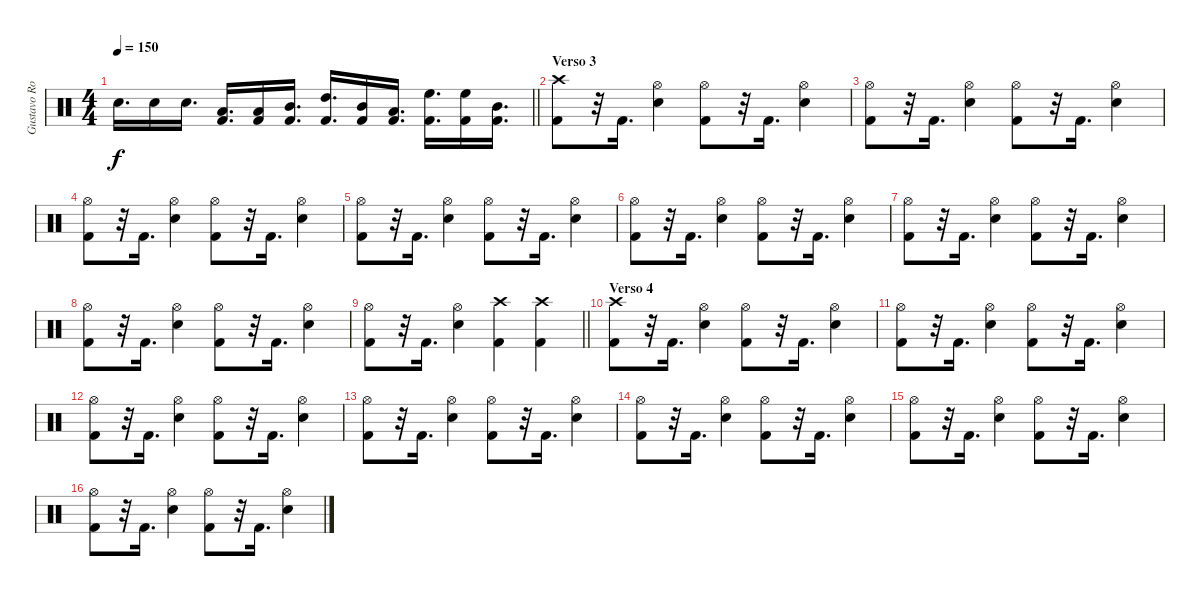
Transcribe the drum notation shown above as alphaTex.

\track ("Gustavo Rowek" "Gustavo Ro") {instrument percussion}
\staff {score}
\articulation defaults
\ts (4 4)
\tempo 150
\clef neutral
\barLineRight lightlight
\ks c "Electric Snare (hit)".16{d dy f} "Electric Snare (hit)".16 "Electric Snare (hit)".16{d}
("Low Tom (hit)" "Kick (hit) 2").16{d} ("Low Tom (hit)" "Kick (hit) 2").16 ("Mid Tom (hit)" "Kick (hit) 2").16{d} ("High Tom (hit)" "Kick (hit) 2").16{d} ("Mid Tom (hit)" "Kick (hit) 2").16 ("Low Tom (hit)" "Kick (hit) 2").16{d} ("High Floor Tom (hit)" "Kick (hit) 2").16{d} ("High Floor Tom (hit)" "Kick (hit) 2").16 ("Mid Tom (hit)" "Kick (hit) 2").16{d} |
\section ("" "Verso 3")
("Crash high (hit)" "Kick (hit) 2").8 r.32 "Kick (hit) 2".16{d} ("Hi-Hat (open)" "Electric Snare (hit)").4 ("Hi-Hat (open)" "Kick (hit) 2").8 r.32 "Kick (hit) 2".16{d} ("Hi-Hat (open)" "Electric Snare (hit)").4 |
("Hi-Hat (open)" "Kick (hit) 2").8 r.32 "Kick (hit) 2".16{d} ("Hi-Hat (open)" "Electric Snare (hit)").4 ("Hi-Hat (open)" "Kick (hit) 2").8 r.32 "Kick (hit) 2".16{d} ("Hi-Hat (open)" "Electric Snare (hit)").4 |
("Hi-Hat (open)" "Kick (hit) 2").8 r.32 "Kick (hit) 2".16{d} ("Hi-Hat (open)" "Electric Snare (hit)").4 ("Hi-Hat (open)" "Kick (hit) 2").8 r.32 "Kick (hit) 2".16{d} ("Hi-Hat (open)" "Electric Snare (hit)").4 |
("Hi-Hat (open)" "Kick (hit) 2").8 r.32 "Kick (hit) 2".16{d} ("Hi-Hat (open)" "Electric Snare (hit)").4 ("Hi-Hat (open)" "Kick (hit) 2").8 r.32 "Kick (hit) 2".16{d} ("Hi-Hat (open)" "Electric Snare (hit)").4 |
("Hi-Hat (open)" "Kick (hit) 2").8 r.32 "Kick (hit) 2".16{d} ("Hi-Hat (open)" "Electric Snare (hit)").4 ("Hi-Hat (open)" "Kick (hit) 2").8 r.32 "Kick (hit) 2".16{d} ("Hi-Hat (open)" "Electric Snare (hit)").4 |
("Hi-Hat (open)" "Kick (hit) 2").8 r.32 "Kick (hit) 2".16{d} ("Hi-Hat (open)" "Electric Snare (hit)").4 ("Hi-Hat (open)" "Kick (hit) 2").8 r.32 "Kick (hit) 2".16{d} ("Hi-Hat (open)" "Electric Snare (hit)").4 |
("Hi-Hat (open)" "Kick (hit) 2").8 r.32 "Kick (hit) 2".16{d} ("Hi-Hat (open)" "Electric Snare (hit)").4 ("Hi-Hat (open)" "Kick (hit) 2").8 r.32 "Kick (hit) 2".16{d} ("Hi-Hat (open)" "Electric Snare (hit)").4 |
\barLineRight lightlight
("Hi-Hat (open)" "Kick (hit) 2").8 r.32 "Kick (hit) 2".16{d} ("Hi-Hat (open)" "Electric Snare (hit)").4 ("Crash high (hit)" "Kick (hit) 2").4 ("Crash high (hit)" "Kick (hit) 2").4 |
\section ("" "Verso 4")
("Crash high (hit)" "Kick (hit) 2").8 r.32 "Kick (hit) 2".16{d} ("Hi-Hat (open)" "Electric Snare (hit)").4 ("Hi-Hat (open)" "Kick (hit) 2").8 r.32 "Kick (hit) 2".16{d} ("Hi-Hat (open)" "Electric Snare (hit)").4 |
("Hi-Hat (open)" "Kick (hit) 2").8 r.32 "Kick (hit) 2".16{d} ("Hi-Hat (open)" "Electric Snare (hit)").4 ("Hi-Hat (open)" "Kick (hit) 2").8 r.32 "Kick (hit) 2".16{d} ("Hi-Hat (open)" "Electric Snare (hit)").4 |
("Hi-Hat (open)" "Kick (hit) 2").8 r.32 "Kick (hit) 2".16{d} ("Hi-Hat (open)" "Electric Snare (hit)").4 ("Hi-Hat (open)" "Kick (hit) 2").8 r.32 "Kick (hit) 2".16{d} ("Hi-Hat (open)" "Electric Snare (hit)").4 |
("Hi-Hat (open)" "Kick (hit) 2").8 r.32 "Kick (hit) 2".16{d} ("Hi-Hat (open)" "Electric Snare (hit)").4 ("Hi-Hat (open)" "Kick (hit) 2").8 r.32 "Kick (hit) 2".16{d} ("Hi-Hat (open)" "Electric Snare (hit)").4 |
("Hi-Hat (open)" "Kick (hit) 2").8 r.32 "Kick (hit) 2".16{d} ("Hi-Hat (open)" "Electric Snare (hit)").4 ("Hi-Hat (open)" "Kick (hit) 2").8 r.32 "Kick (hit) 2".16{d} ("Hi-Hat (open)" "Electric Snare (hit)").4 |
("Hi-Hat (open)" "Kick (hit) 2").8 r.32 "Kick (hit) 2".16{d} ("Hi-Hat (open)" "Electric Snare (hit)").4 ("Hi-Hat (open)" "Kick (hit) 2").8 r.32 "Kick (hit) 2".16{d} ("Hi-Hat (open)" "Electric Snare (hit)").4 |
("Hi-Hat (open)" "Kick (hit) 2").8 r.32 "Kick (hit) 2".16{d} ("Hi-Hat (open)" "Electric Snare (hit)").4 ("Hi-Hat (open)" "Kick (hit) 2").8 r.32 "Kick (hit) 2".16{d} ("Hi-Hat (open)" "Electric Snare (hit)").4
